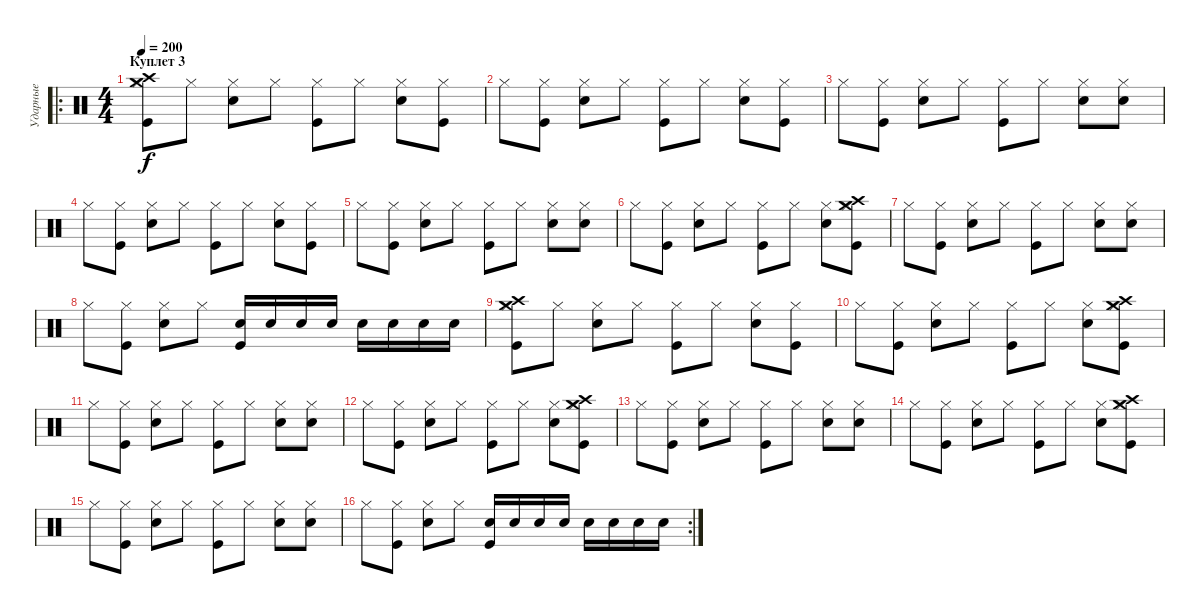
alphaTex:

\track ("Ударные" "Ударные") {instrument percussion}
\staff {score}
\articulation defaults
\ro
\ts (4 4)
\section ("" "Куплет 3")
\tempo 200
\clef neutral
\ks c
("Hi-Hat (closed)" "Kick (hit)" "Crash high (hit)" "Crash medium (hit)").8{dy f} "Hi-Hat (closed)".8 ("Electric Snare (hit)" "Hi-Hat (closed)").8 "Hi-Hat (closed)".8 ("Hi-Hat (closed)" "Kick (hit)").8 "Hi-Hat (closed)".8 ("Hi-Hat (closed)" "Electric Snare (hit)").8 ("Hi-Hat (closed)" "Kick (hit)").8 |
"Hi-Hat (closed)".8 ("Hi-Hat (closed)" "Kick (hit)").8 ("Hi-Hat (closed)" "Electric Snare (hit)").8 "Hi-Hat (closed)".8 ("Kick (hit)" "Hi-Hat (closed)").8 "Hi-Hat (closed)".8 ("Electric Snare (hit)" "Hi-Hat (closed)").8 ("Kick (hit)" "Hi-Hat (closed)").8 |
"Hi-Hat (closed)".8 ("Kick (hit)" "Hi-Hat (closed)").8 ("Electric Snare (hit)" "Hi-Hat (closed)").8 "Hi-Hat (closed)".8 ("Hi-Hat (closed)" "Kick (hit)").8 "Hi-Hat (closed)".8 ("Hi-Hat (closed)" "Electric Snare (hit)").8 ("Electric Snare (hit)" "Hi-Hat (closed)").8 |
"Hi-Hat (closed)".8 ("Hi-Hat (closed)" "Kick (hit)").8 ("Hi-Hat (closed)" "Electric Snare (hit)").8 "Hi-Hat (closed)".8 ("Kick (hit)" "Hi-Hat (closed)").8 "Hi-Hat (closed)".8 ("Electric Snare (hit)" "Hi-Hat (closed)").8 ("Kick (hit)" "Hi-Hat (closed)").8 |
"Hi-Hat (closed)".8 ("Kick (hit)" "Hi-Hat (closed)").8 ("Electric Snare (hit)" "Hi-Hat (closed)").8 "Hi-Hat (closed)".8 ("Hi-Hat (closed)" "Kick (hit)").8 "Hi-Hat (closed)".8 ("Hi-Hat (closed)" "Electric Snare (hit)").8 ("Electric Snare (hit)" "Hi-Hat (closed)").8 |
"Hi-Hat (closed)".8 ("Kick (hit)" "Hi-Hat (closed)").8 ("Electric Snare (hit)" "Hi-Hat (closed)").8 "Hi-Hat (closed)".8 ("Hi-Hat (closed)" "Kick (hit)").8 "Hi-Hat (closed)".8 ("Hi-Hat (closed)" "Electric Snare (hit)").8 ("Crash medium (hit)" "Hi-Hat (closed)" "Kick (hit)" "Crash high (hit)").8 |
"Hi-Hat (closed)".8 ("Kick (hit)" "Hi-Hat (closed)").8 ("Electric Snare (hit)" "Hi-Hat (closed)").8 "Hi-Hat (closed)".8 ("Hi-Hat (closed)" "Kick (hit)").8 "Hi-Hat (closed)".8 ("Hi-Hat (closed)" "Electric Snare (hit)").8 ("Electric Snare (hit)" "Hi-Hat (closed)").8 |
"Hi-Hat (closed)".8 ("Kick (hit)" "Hi-Hat (closed)").8 ("Electric Snare (hit)" "Hi-Hat (closed)").8 "Hi-Hat (closed)".8 ("Electric Snare (hit)" "Kick (hit)").16 "Electric Snare (hit)".16 "Electric Snare (hit)".16 "Electric Snare (hit)".16 "Electric Snare (hit)".16 "Electric Snare (hit)".16 "Electric Snare (hit)".16 "Electric Snare (hit)".16 |
("Hi-Hat (closed)" "Kick (hit)" "Crash high (hit)" "Crash medium (hit)").8 "Hi-Hat (closed)".8 ("Electric Snare (hit)" "Hi-Hat (closed)").8 "Hi-Hat (closed)".8 ("Hi-Hat (closed)" "Kick (hit)").8 "Hi-Hat (closed)".8 ("Hi-Hat (closed)" "Electric Snare (hit)").8 ("Hi-Hat (closed)" "Kick (hit)").8 |
"Hi-Hat (closed)".8 ("Hi-Hat (closed)" "Kick (hit)").8 ("Hi-Hat (closed)" "Electric Snare (hit)").8 "Hi-Hat (closed)".8 ("Kick (hit)" "Hi-Hat (closed)").8 "Hi-Hat (closed)".8 ("Electric Snare (hit)" "Hi-Hat (closed)").8 ("Crash medium (hit)" "Hi-Hat (closed)" "Kick (hit)" "Crash high (hit)").8 |
"Hi-Hat (closed)".8 ("Kick (hit)" "Hi-Hat (closed)").8 ("Electric Snare (hit)" "Hi-Hat (closed)").8 "Hi-Hat (closed)".8 ("Hi-Hat (closed)" "Kick (hit)").8 "Hi-Hat (closed)".8 ("Hi-Hat (closed)" "Electric Snare (hit)").8 ("Electric Snare (hit)" "Hi-Hat (closed)").8 |
"Hi-Hat (closed)".8 ("Hi-Hat (closed)" "Kick (hit)").8 ("Hi-Hat (closed)" "Electric Snare (hit)").8 "Hi-Hat (closed)".8 ("Kick (hit)" "Hi-Hat (closed)").8 "Hi-Hat (closed)".8 ("Electric Snare (hit)" "Hi-Hat (closed)").8 ("Crash medium (hit)" "Hi-Hat (closed)" "Kick (hit)" "Crash high (hit)").8 |
"Hi-Hat (closed)".8 ("Kick (hit)" "Hi-Hat (closed)").8 ("Electric Snare (hit)" "Hi-Hat (closed)").8 "Hi-Hat (closed)".8 ("Hi-Hat (closed)" "Kick (hit)").8 "Hi-Hat (closed)".8 ("Hi-Hat (closed)" "Electric Snare (hit)").8 ("Electric Snare (hit)" "Hi-Hat (closed)").8 |
"Hi-Hat (closed)".8 ("Kick (hit)" "Hi-Hat (closed)").8 ("Electric Snare (hit)" "Hi-Hat (closed)").8 "Hi-Hat (closed)".8 ("Hi-Hat (closed)" "Kick (hit)").8 "Hi-Hat (closed)".8 ("Hi-Hat (closed)" "Electric Snare (hit)").8 ("Crash medium (hit)" "Hi-Hat (closed)" "Kick (hit)" "Crash high (hit)").8 |
"Hi-Hat (closed)".8 ("Kick (hit)" "Hi-Hat (closed)").8 ("Electric Snare (hit)" "Hi-Hat (closed)").8 "Hi-Hat (closed)".8 ("Hi-Hat (closed)" "Kick (hit)").8 "Hi-Hat (closed)".8 ("Hi-Hat (closed)" "Electric Snare (hit)").8 ("Electric Snare (hit)" "Hi-Hat (closed)").8 |
\rc 2 "Hi-Hat (closed)".8
("Kick (hit)" "Hi-Hat (closed)").8 ("Electric Snare (hit)" "Hi-Hat (closed)").8 "Hi-Hat (closed)".8 ("Electric Snare (hit)" "Kick (hit)").16 "Electric Snare (hit)".16 "Electric Snare (hit)".16 "Electric Snare (hit)".16 "Electric Snare (hit)".16 "Electric Snare (hit)".16 "Electric Snare (hit)".16 "Electric Snare (hit)".16
